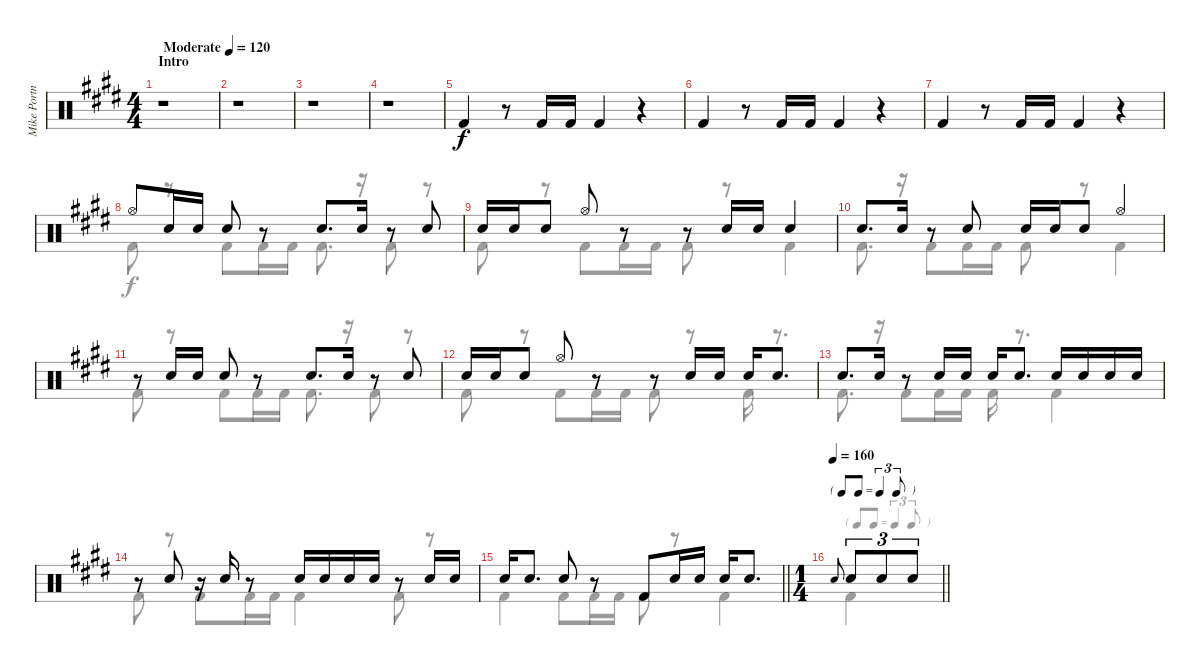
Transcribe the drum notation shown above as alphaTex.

\track ("Mike Portnoy" "Mike Portn") {instrument percussion}
\staff {score}
\articulation defaults
\voice
\ts (4 4)
\section ("" "Intro")
\tempo (120 "Moderate")
\clef neutral
\ks e
r.1{dy f} |
r.1 |
r.1 |
r.1 |
"Kick (hit) 2".4 r.8 "Kick (hit) 2".16 "Kick (hit) 2".16 "Kick (hit) 2".4 r.4 |
"Kick (hit) 2".4 r.8 "Kick (hit) 2".16 "Kick (hit) 2".16 "Kick (hit) 2".4 r.4 |
"Kick (hit) 2".4 r.8 "Kick (hit) 2".16 "Kick (hit) 2".16 "Kick (hit) 2".4 r.4 |
"Hi-Hat (open)".8 "Snare (hit) 2".16 "Snare (hit) 2".16 "Snare (hit) 2".8 r.8 "Snare (hit) 2".8{d} "Snare (hit) 2".16 r.8 "Snare (hit) 2".8 |
"Snare (hit) 2".16 "Snare (hit) 2".16 "Snare (hit) 2".8 "Hi-Hat (open)".8 r.8 r.8 "Snare (hit) 2".16 "Snare (hit) 2".16 "Snare (hit) 2".4 |
"Snare (hit) 2".8{d} "Snare (hit) 2".16 r.8 "Snare (hit) 2".8 "Snare (hit) 2".16 "Snare (hit) 2".16 "Snare (hit) 2".8 "Hi-Hat (open)".4 |
r.8 "Snare (hit) 2".16 "Snare (hit) 2".16 "Snare (hit) 2".8 r.8 "Snare (hit) 2".8{d} "Snare (hit) 2".16 r.8 "Snare (hit) 2".8 |
"Snare (hit) 2".16 "Snare (hit) 2".16 "Snare (hit) 2".8 "Hi-Hat (open)".8 r.8 r.8 "Snare (hit) 2".16 "Snare (hit) 2".16 "Snare (hit) 2".16 "Snare (hit) 2".8{d} |
"Snare (hit) 2".8{d} "Snare (hit) 2".16 r.8 "Snare (hit) 2".16 "Snare (hit) 2".16 "Snare (hit) 2".16 "Snare (hit) 2".8{d} "Snare (hit) 2".16 "Snare (hit) 2".16 "Snare (hit) 2".16 "Snare (hit) 2".16 |
r.8 "Snare (hit) 2".8 r.16 "Snare (hit) 2".16 r.8{beam split} "Snare (hit) 2".16{beam merge} "Snare (hit) 2".16 "Snare (hit) 2".16 "Snare (hit) 2".16 r.8 "Snare (hit) 2".16 "Snare (hit) 2".16 |
\barLineRight lightlight "Snare (hit) 2".16 "Snare (hit) 2".8{d} "Snare (hit) 2".8
r.8 "Kick (hit) 2".8 "Snare (hit) 2".16 "Snare (hit) 2".16 "Snare (hit) 2".16 "Snare (hit) 2".8{d} |
\ts (1 4)
\tf triplet8th
\tempo 160
\barLineRight lightlight "Snare (hit) 2".8{gr onbeat} "Snare (hit) 2".8{tu (3 2)} "Snare (hit) 2".8{tu (3 2)} "Snare (hit) 2".8{tu (3 2)}
\voice
\clef neutral
\ottava regular
\simile none
\ks e
|
|
|
|
|
|
|
"Kick (hit) 2".8 r.8 "Kick (hit) 2".8 "Kick (hit) 2".16 "Kick (hit) 2".16 "Kick (hit) 2".8{d} r.16 "Kick (hit) 2".8 r.8 |
"Kick (hit) 2".8 r.8 "Kick (hit) 2".8 "Kick (hit) 2".16 "Kick (hit) 2".16 "Kick (hit) 2".8 r.8 "Kick (hit) 2".4 |
"Kick (hit) 2".8{d} r.16 "Kick (hit) 2".8 "Kick (hit) 2".16 "Kick (hit) 2".16 "Kick (hit) 2".8 r.8 "Kick (hit) 2".4 |
"Kick (hit) 2".8 r.8 "Kick (hit) 2".8 "Kick (hit) 2".16 "Kick (hit) 2".16 "Kick (hit) 2".8{d} r.16 "Kick (hit) 2".8 r.8 |
"Kick (hit) 2".8 r.8 "Kick (hit) 2".8 "Kick (hit) 2".16 "Kick (hit) 2".16 "Kick (hit) 2".8 r.8 "Kick (hit) 2".16 r.8{d} |
"Kick (hit) 2".8{d} r.16 "Kick (hit) 2".8 "Kick (hit) 2".16 "Kick (hit) 2".16 "Kick (hit) 2".16 r.8{d} "Kick (hit) 2".4 |
"Kick (hit) 2".8 r.8 "Kick (hit) 2".8 "Kick (hit) 2".16 "Kick (hit) 2".16 "Kick (hit) 2".4 "Kick (hit) 2".8 r.8 |
\barLineRight lightlight "Kick (hit) 2".4 "Kick (hit) 2".8 "Kick (hit) 2".16 "Kick (hit) 2".16 "Kick (hit) 2".8
r.8 "Kick (hit) 2".4 |
\barLineRight lightlight "Kick (hit) 2".4
